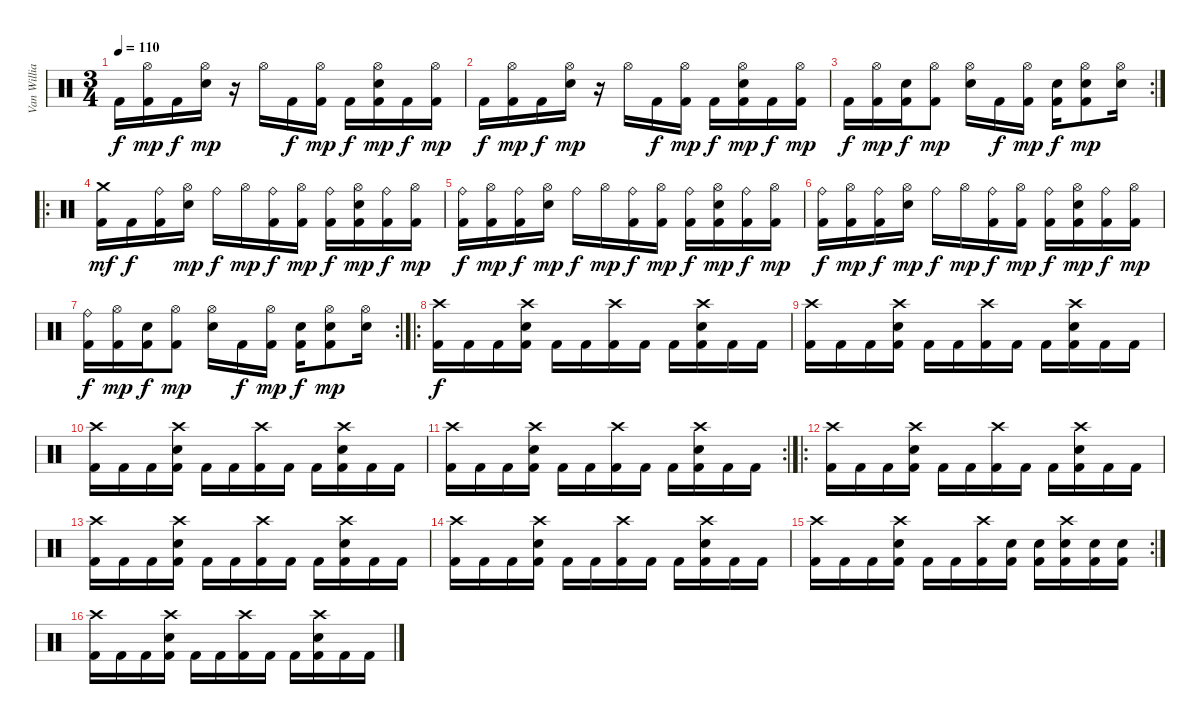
\track ("Van Williams" "Van Willia") {instrument percussion}
\staff {score}
\articulation defaults
\ts (3 4)
\tempo 110
\clef neutral
\ks c "Kick (hit) 2".16{dy f}
("Hi-Hat (open)" "Kick (hit) 2").16{dy mp} "Kick (hit) 2".16{dy f} ("Hi-Hat (open)" "Electric Snare (hit)").16{dy mp} r.16 "Hi-Hat (open)".16 "Kick (hit) 2".16{dy f} ("Hi-Hat (open)" "Kick (hit) 2").16{dy mp} "Kick (hit) 2".16{dy f} ("Hi-Hat (open)" "Electric Snare (hit)" "Kick (hit) 2").16{dy mp} "Kick (hit) 2".16{dy f} ("Hi-Hat (open)" "Kick (hit) 2").16{dy mp} |
"Kick (hit) 2".16{dy f} ("Hi-Hat (open)" "Kick (hit) 2").16{dy mp} "Kick (hit) 2".16{dy f} ("Hi-Hat (open)" "Electric Snare (hit)").16{dy mp} r.16 "Hi-Hat (open)".16 "Kick (hit) 2".16{dy f} ("Hi-Hat (open)" "Kick (hit) 2").16{dy mp} "Kick (hit) 2".16{dy f} ("Hi-Hat (open)" "Electric Snare (hit)" "Kick (hit) 2").16{dy mp} "Kick (hit) 2".16{dy f} ("Hi-Hat (open)" "Kick (hit) 2").16{dy mp} |
\rc 2 "Kick (hit) 2".16{dy f}
("Hi-Hat (open)" "Kick (hit) 2").16{dy mp} ("Electric Snare (hit)" "Kick (hit) 2").16{dy f} ("Hi-Hat (open)" "Kick (hit) 2").8{dy mp} ("Hi-Hat (open)" "Electric Snare (hit)").16 "Kick (hit) 2".16{dy f} ("Hi-Hat (open)" "Kick (hit) 2").16{dy mp} ("Electric Snare (hit)" "Kick (hit) 2").16{dy f} ("Hi-Hat (open)" "Electric Snare (hit)" "Kick (hit) 2").8{dy mp} ("Hi-Hat (open)" "Electric Snare (hit)").16 |
\ro
("Crash medium (hit)" "Kick (hit) 2").16{dy mf} "Kick (hit) 2".16{dy f} ("Ride (bell)" "Kick (hit) 2").16 ("Hi-Hat (open)" "Electric Snare (hit)").16{dy mp} "Ride (bell)".16{dy f} "Hi-Hat (open)".16{dy mp} ("Ride (bell)" "Kick (hit) 2").16{dy f} ("Hi-Hat (open)" "Kick (hit) 2").16{dy mp} ("Ride (bell)" "Kick (hit) 2").16{dy f} ("Hi-Hat (open)" "Electric Snare (hit)" "Kick (hit) 2").16{dy mp} ("Ride (bell)" "Kick (hit) 2").16{dy f} ("Hi-Hat (open)" "Kick (hit) 2").16{dy mp} |
("Ride (bell)" "Kick (hit) 2").16{dy f} ("Hi-Hat (open)" "Kick (hit) 2").16{dy mp} ("Ride (bell)" "Kick (hit) 2").16{dy f} ("Hi-Hat (open)" "Electric Snare (hit)").16{dy mp} "Ride (bell)".16{dy f} "Hi-Hat (open)".16{dy mp} ("Ride (bell)" "Kick (hit) 2").16{dy f} ("Hi-Hat (open)" "Kick (hit) 2").16{dy mp} ("Ride (bell)" "Kick (hit) 2").16{dy f} ("Hi-Hat (open)" "Electric Snare (hit)" "Kick (hit) 2").16{dy mp} ("Ride (bell)" "Kick (hit) 2").16{dy f} ("Hi-Hat (open)" "Kick (hit) 2").16{dy mp} |
("Ride (bell)" "Kick (hit) 2").16{dy f} ("Hi-Hat (open)" "Kick (hit) 2").16{dy mp} ("Ride (bell)" "Kick (hit) 2").16{dy f} ("Hi-Hat (open)" "Electric Snare (hit)").16{dy mp} "Ride (bell)".16{dy f} "Hi-Hat (open)".16{dy mp} ("Ride (bell)" "Kick (hit) 2").16{dy f} ("Hi-Hat (open)" "Kick (hit) 2").16{dy mp} ("Ride (bell)" "Kick (hit) 2").16{dy f} ("Hi-Hat (open)" "Electric Snare (hit)" "Kick (hit) 2").16{dy mp} ("Ride (bell)" "Kick (hit) 2").16{dy f} ("Hi-Hat (open)" "Kick (hit) 2").16{dy mp} |
\rc 2
("Ride (bell)" "Kick (hit) 2").16{dy f} ("Hi-Hat (open)" "Kick (hit) 2").16{dy mp} ("Electric Snare (hit)" "Kick (hit) 2").16{dy f} ("Hi-Hat (open)" "Kick (hit) 2").8{dy mp} ("Hi-Hat (open)" "Electric Snare (hit)").16 "Kick (hit) 2".16{dy f} ("Hi-Hat (open)" "Kick (hit) 2").16{dy mp} ("Electric Snare (hit)" "Kick (hit) 2").16{dy f} ("Hi-Hat (open)" "Electric Snare (hit)" "Kick (hit) 2").8{dy mp} ("Hi-Hat (open)" "Electric Snare (hit)").16 |
\ro
("Crash high (hit)" "Kick (hit) 2").16{dy f} "Kick (hit) 2".16 "Kick (hit) 2".16 ("Crash high (hit)" "Electric Snare (hit)" "Kick (hit) 2").16 "Kick (hit) 2".16 "Kick (hit) 2".16 ("Crash high (hit)" "Kick (hit) 2").16 "Kick (hit) 2".16 "Kick (hit) 2".16 ("Crash high (hit)" "Electric Snare (hit)" "Kick (hit) 2").16 "Kick (hit) 2".16 "Kick (hit) 2".16 |
("Crash high (hit)" "Kick (hit) 2").16 "Kick (hit) 2".16 "Kick (hit) 2".16 ("Crash high (hit)" "Electric Snare (hit)" "Kick (hit) 2").16 "Kick (hit) 2".16 "Kick (hit) 2".16 ("Crash high (hit)" "Kick (hit) 2").16 "Kick (hit) 2".16 "Kick (hit) 2".16 ("Crash high (hit)" "Electric Snare (hit)" "Kick (hit) 2").16 "Kick (hit) 2".16 "Kick (hit) 2".16 |
("Crash high (hit)" "Kick (hit) 2").16 "Kick (hit) 2".16 "Kick (hit) 2".16 ("Crash high (hit)" "Electric Snare (hit)" "Kick (hit) 2").16 "Kick (hit) 2".16 "Kick (hit) 2".16 ("Crash high (hit)" "Kick (hit) 2").16 "Kick (hit) 2".16 "Kick (hit) 2".16 ("Crash high (hit)" "Electric Snare (hit)" "Kick (hit) 2").16 "Kick (hit) 2".16 "Kick (hit) 2".16 |
\rc 2
("Crash high (hit)" "Kick (hit) 2").16 "Kick (hit) 2".16 "Kick (hit) 2".16 ("Crash high (hit)" "Electric Snare (hit)" "Kick (hit) 2").16 "Kick (hit) 2".16 "Kick (hit) 2".16 ("Crash high (hit)" "Kick (hit) 2").16 "Kick (hit) 2".16 "Kick (hit) 2".16 ("Crash high (hit)" "Electric Snare (hit)" "Kick (hit) 2").16 "Kick (hit) 2".16 "Kick (hit) 2".16 |
\ro
("Crash high (hit)" "Kick (hit) 2").16 "Kick (hit) 2".16 "Kick (hit) 2".16 ("Crash high (hit)" "Electric Snare (hit)" "Kick (hit) 2").16 "Kick (hit) 2".16 "Kick (hit) 2".16 ("Crash high (hit)" "Kick (hit) 2").16 "Kick (hit) 2".16 "Kick (hit) 2".16 ("Crash high (hit)" "Electric Snare (hit)" "Kick (hit) 2").16 "Kick (hit) 2".16 "Kick (hit) 2".16 |
("Crash high (hit)" "Kick (hit) 2").16 "Kick (hit) 2".16 "Kick (hit) 2".16 ("Crash high (hit)" "Electric Snare (hit)" "Kick (hit) 2").16 "Kick (hit) 2".16 "Kick (hit) 2".16 ("Crash high (hit)" "Kick (hit) 2").16 "Kick (hit) 2".16 "Kick (hit) 2".16 ("Crash high (hit)" "Electric Snare (hit)" "Kick (hit) 2").16 "Kick (hit) 2".16 "Kick (hit) 2".16 |
("Crash high (hit)" "Kick (hit) 2").16 "Kick (hit) 2".16 "Kick (hit) 2".16 ("Crash high (hit)" "Electric Snare (hit)" "Kick (hit) 2").16 "Kick (hit) 2".16 "Kick (hit) 2".16 ("Crash high (hit)" "Kick (hit) 2").16 "Kick (hit) 2".16 "Kick (hit) 2".16 ("Crash high (hit)" "Electric Snare (hit)" "Kick (hit) 2").16 "Kick (hit) 2".16 "Kick (hit) 2".16 |
\rc 2
("Crash high (hit)" "Kick (hit) 2").16 "Kick (hit) 2".16 "Kick (hit) 2".16 ("Crash high (hit)" "Electric Snare (hit)" "Kick (hit) 2").16 "Kick (hit) 2".16 "Kick (hit) 2".16 ("Crash high (hit)" "Kick (hit) 2").16 ("Electric Snare (hit)" "Kick (hit) 2").16 ("Electric Snare (hit)" "Kick (hit) 2").16 ("Crash high (hit)" "Electric Snare (hit)" "Kick (hit) 2").16 ("Electric Snare (hit)" "Kick (hit) 2").16 ("Electric Snare (hit)" "Kick (hit) 2").16 |
("Crash high (hit)" "Kick (hit) 2").16 "Kick (hit) 2".16 "Kick (hit) 2".16 ("Crash high (hit)" "Electric Snare (hit)" "Kick (hit) 2").16 "Kick (hit) 2".16 "Kick (hit) 2".16 ("Crash high (hit)" "Kick (hit) 2").16 "Kick (hit) 2".16 "Kick (hit) 2".16 ("Crash high (hit)" "Electric Snare (hit)" "Kick (hit) 2").16 "Kick (hit) 2".16 "Kick (hit) 2".16
